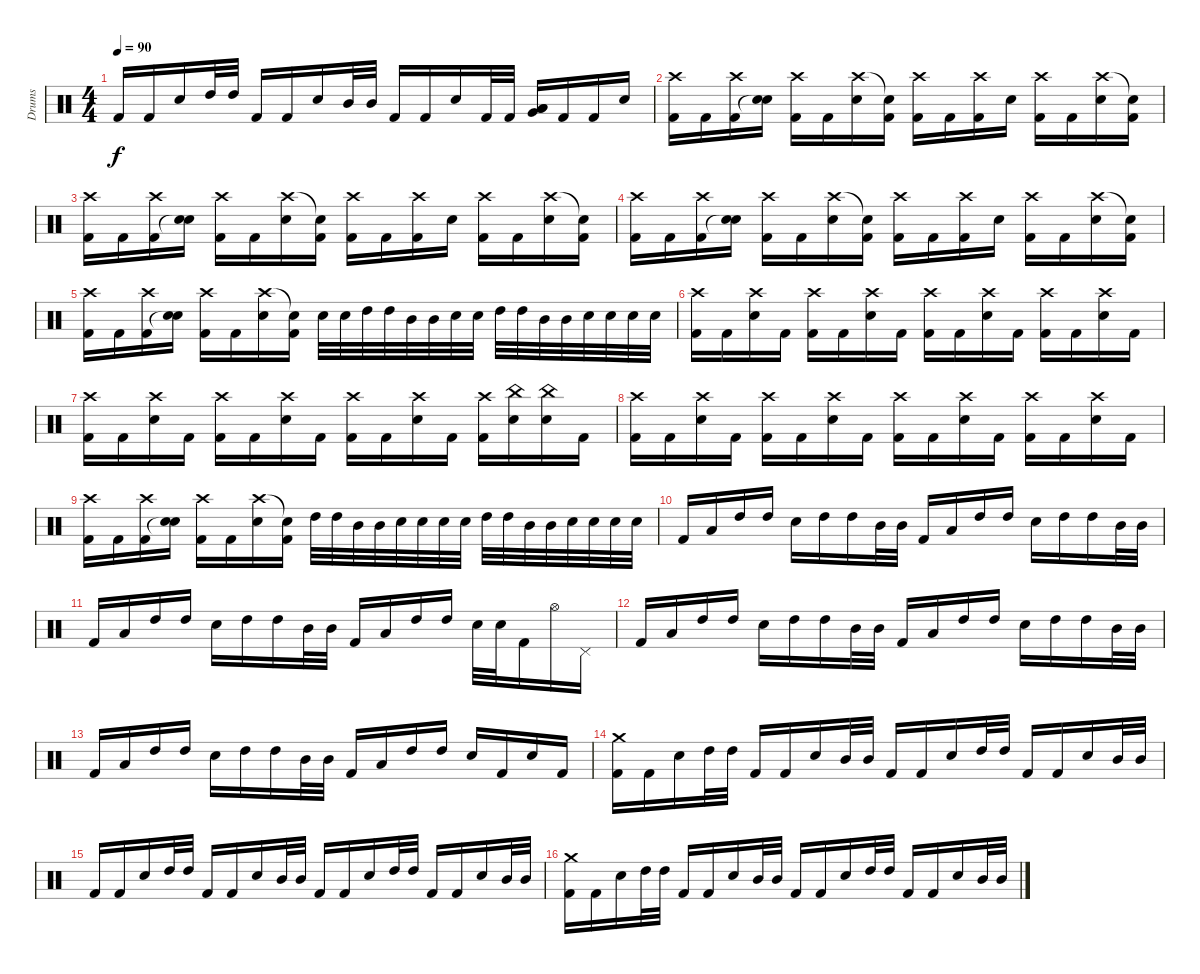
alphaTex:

\track ("Drums" "Drums") {instrument percussion}
\staff {score}
\articulation defaults
\ts (4 4)
\tempo 90
\clef neutral
\ks c "Kick (hit) 2".16{dy f} "Kick (hit) 2".16 "Electric Snare (hit)".16 "High Tom (hit)".32 "High Tom (hit)".32 "Kick (hit) 2".16 "Kick (hit) 2".16 "Electric Snare (hit)".16 "Mid Tom (hit)".32 "Mid Tom (hit)".32 "Kick (hit) 2".16 "Kick (hit) 2".16 "Electric Snare (hit)".16 "Kick (hit) 2".32 "Kick (hit) 2".32
("Very Low Tom (hit)" "Low Floor Tom (hit)" "Low Tom (hit)").16 "Kick (hit) 2".16 "Kick (hit) 2".16 "Electric Snare (hit)".16 |
("Crash high (hit)" "Kick (hit) 2").16 "Kick (hit) 2".16 ("Crash high (hit)" "Kick (hit) 2").16 ("Electric Snare (hit)" "Snare (hit)"{t}).16 ("Crash high (hit)" "Kick (hit) 2").16 "Kick (hit) 2".16 ("Crash high (hit)" "Electric Snare (hit)").16 ("Snare (hit)"{t} "Kick (hit) 2").16 ("Crash high (hit)" "Kick (hit) 2").16 "Kick (hit) 2".16 ("Crash high (hit)" "Kick (hit) 2").16 "Electric Snare (hit)".16 ("Crash high (hit)" "Kick (hit) 2").16 "Kick (hit) 2".16 ("Crash high (hit)" "Electric Snare (hit)").16 ("Snare (hit)"{t} "Kick (hit) 2").16 |
("Crash high (hit)" "Kick (hit) 2").16 "Kick (hit) 2".16 ("Crash high (hit)" "Kick (hit) 2").16 ("Electric Snare (hit)" "Snare (hit)"{t}).16 ("Crash high (hit)" "Kick (hit) 2").16 "Kick (hit) 2".16 ("Crash high (hit)" "Electric Snare (hit)").16 ("Snare (hit)"{t} "Kick (hit) 2").16 ("Crash high (hit)" "Kick (hit) 2").16 "Kick (hit) 2".16 ("Crash high (hit)" "Kick (hit) 2").16 "Electric Snare (hit)".16 ("Crash high (hit)" "Kick (hit) 2").16 "Kick (hit) 2".16 ("Crash high (hit)" "Electric Snare (hit)").16 ("Snare (hit)"{t} "Kick (hit) 2").16 |
("Crash high (hit)" "Kick (hit) 2").16 "Kick (hit) 2".16 ("Crash high (hit)" "Kick (hit) 2").16 ("Electric Snare (hit)" "Snare (hit)"{t}).16 ("Crash high (hit)" "Kick (hit) 2").16 "Kick (hit) 2".16 ("Crash high (hit)" "Electric Snare (hit)").16 ("Snare (hit)"{t} "Kick (hit) 2").16 ("Crash high (hit)" "Kick (hit) 2").16 "Kick (hit) 2".16 ("Crash high (hit)" "Kick (hit) 2").16 "Electric Snare (hit)".16 ("Crash high (hit)" "Kick (hit) 2").16 "Kick (hit) 2".16 ("Crash high (hit)" "Electric Snare (hit)").16 ("Snare (hit)"{t} "Kick (hit) 2").16 |
("Crash high (hit)" "Kick (hit) 2").16 "Kick (hit) 2".16 ("Crash high (hit)" "Kick (hit) 2").16 ("Electric Snare (hit)" "Snare (hit)"{t}).16 ("Crash high (hit)" "Kick (hit) 2").16 "Kick (hit) 2".16 ("Crash high (hit)" "Electric Snare (hit)").16 ("Snare (hit)"{t} "Kick (hit) 2").16 "Electric Snare (hit)".32 "Electric Snare (hit)".32 "High Tom (hit)".32 "High Tom (hit)".32 "Mid Tom (hit)".32 "Mid Tom (hit)".32 "Electric Snare (hit)".32 "Electric Snare (hit)".32 "High Tom (hit)".32 "High Tom (hit)".32 "Mid Tom (hit)".32 "Mid Tom (hit)".32 "Electric Snare (hit)".32 "Electric Snare (hit)".32 "Electric Snare (hit)".32 "Electric Snare (hit)".32 |
("Crash high (hit)" "Kick (hit) 2").16 "Kick (hit) 2".16 ("Crash high (hit)" "Electric Snare (hit)").16 "Kick (hit) 2".16 ("Crash high (hit)" "Kick (hit) 2").16 "Kick (hit) 2".16 ("Crash high (hit)" "Electric Snare (hit)").16 "Kick (hit) 2".16 ("Crash high (hit)" "Kick (hit) 2").16 "Kick (hit) 2".16 ("Crash high (hit)" "Electric Snare (hit)").16 "Kick (hit) 2".16 ("Crash high (hit)" "Kick (hit) 2").16 "Kick (hit) 2".16 ("Crash high (hit)" "Electric Snare (hit)").16 "Kick (hit) 2".16 |
("Crash high (hit)" "Kick (hit) 2").16 "Kick (hit) 2".16 ("Crash high (hit)" "Electric Snare (hit)").16 "Kick (hit) 2".16 ("Crash high (hit)" "Kick (hit) 2").16 "Kick (hit) 2".16 ("Crash high (hit)" "Electric Snare (hit)").16 "Kick (hit) 2".16 ("Crash high (hit)" "Kick (hit) 2").16 "Kick (hit) 2".16 ("Crash high (hit)" "Electric Snare (hit)").16 "Kick (hit) 2".16 ("Crash high (hit)" "Kick (hit) 2").16 ("China (hit)" "Electric Snare (hit)").16 ("China (hit)" "Electric Snare (hit)").16 "Kick (hit) 2".16 |
("Crash high (hit)" "Kick (hit) 2").16 "Kick (hit) 2".16 ("Crash high (hit)" "Electric Snare (hit)").16 "Kick (hit) 2".16 ("Crash high (hit)" "Kick (hit) 2").16 "Kick (hit) 2".16 ("Crash high (hit)" "Electric Snare (hit)").16 "Kick (hit) 2".16 ("Crash high (hit)" "Kick (hit) 2").16 "Kick (hit) 2".16 ("Crash high (hit)" "Electric Snare (hit)").16 "Kick (hit) 2".16 ("Crash high (hit)" "Kick (hit) 2").16 "Kick (hit) 2".16 ("Crash high (hit)" "Electric Snare (hit)").16 "Kick (hit) 2".16 |
("Crash high (hit)" "Kick (hit) 2").16 "Kick (hit) 2".16 ("Crash high (hit)" "Kick (hit) 2").16 ("Electric Snare (hit)" "Snare (hit)"{t}).16 ("Crash high (hit)" "Kick (hit) 2").16 "Kick (hit) 2".16 ("Crash high (hit)" "Electric Snare (hit)").16 ("Snare (hit)"{t} "Kick (hit) 2").16 "High Tom (hit)".32 "High Tom (hit)".32 "Mid Tom (hit)".32 "Mid Tom (hit)".32 "Electric Snare (hit)".32 "Electric Snare (hit)".32 "Electric Snare (hit)".32 "Electric Snare (hit)".32 "High Tom (hit)".32 "High Tom (hit)".32 "Mid Tom (hit)".32 "Mid Tom (hit)".32 "Electric Snare (hit)".32 "Electric Snare (hit)".32 "Electric Snare (hit)".32 "Electric Snare (hit)".32 |
"Kick (hit) 2".16 "Low Tom (hit)".16 "High Tom (hit)".16 "High Tom (hit)".16 "Electric Snare (hit)".16 "High Tom (hit)".16 "High Tom (hit)".16 "Mid Tom (hit)".32 "Mid Tom (hit)".32 "Kick (hit) 2".16 "Low Tom (hit)".16 "High Tom (hit)".16 "High Tom (hit)".16 "Electric Snare (hit)".16 "High Tom (hit)".16 "High Tom (hit)".16 "Mid Tom (hit)".32 "Mid Tom (hit)".32 |
"Kick (hit) 2".16 "Low Tom (hit)".16 "High Tom (hit)".16 "High Tom (hit)".16 "Electric Snare (hit)".16 "High Tom (hit)".16 "High Tom (hit)".16 "Mid Tom (hit)".32 "Mid Tom (hit)".32 "Kick (hit) 2".16 "Low Tom (hit)".16 "High Tom (hit)".16 "High Tom (hit)".16 "Electric Snare (hit)".32 "Electric Snare (hit)".32 "Kick (hit) 2".16 "Hi-Hat (open)".16 "Pedal Hi-Hat (hit)".16 |
"Kick (hit) 2".16 "Low Tom (hit)".16 "High Tom (hit)".16 "High Tom (hit)".16 "Electric Snare (hit)".16 "High Tom (hit)".16 "High Tom (hit)".16 "Mid Tom (hit)".32 "Mid Tom (hit)".32 "Kick (hit) 2".16 "Low Tom (hit)".16 "High Tom (hit)".16 "High Tom (hit)".16 "Electric Snare (hit)".16 "High Tom (hit)".16 "High Tom (hit)".16 "Mid Tom (hit)".32 "Mid Tom (hit)".32 |
"Kick (hit) 2".16 "Low Tom (hit)".16 "High Tom (hit)".16 "High Tom (hit)".16 "Electric Snare (hit)".16 "High Tom (hit)".16 "High Tom (hit)".16 "Mid Tom (hit)".32 "Mid Tom (hit)".32 "Kick (hit) 2".16 "Low Tom (hit)".16 "High Tom (hit)".16 "High Tom (hit)".16 "Electric Snare (hit)".16 "Kick (hit) 2".16 "Electric Snare (hit)".16 "Kick (hit) 2".16 |
("Crash medium (hit)" "Kick (hit) 2").16 "Kick (hit) 2".16 "Electric Snare (hit)".16 "High Tom (hit)".32 "High Tom (hit)".32 "Kick (hit) 2".16 "Kick (hit) 2".16 "Electric Snare (hit)".16 "Mid Tom (hit)".32 "Mid Tom (hit)".32 "Kick (hit) 2".16 "Kick (hit) 2".16 "Electric Snare (hit)".16 "High Tom (hit)".32 "High Tom (hit)".32 "Kick (hit) 2".16 "Kick (hit) 2".16 "Electric Snare (hit)".16 "Mid Tom (hit)".32 "Mid Tom (hit)".32 |
"Kick (hit) 2".16 "Kick (hit) 2".16 "Electric Snare (hit)".16 "High Tom (hit)".32 "High Tom (hit)".32 "Kick (hit) 2".16 "Kick (hit) 2".16 "Electric Snare (hit)".16 "Mid Tom (hit)".32 "Mid Tom (hit)".32 "Kick (hit) 2".16 "Kick (hit) 2".16 "Electric Snare (hit)".16 "High Tom (hit)".32 "High Tom (hit)".32 "Kick (hit) 2".16 "Kick (hit) 2".16 "Electric Snare (hit)".16 "Mid Tom (hit)".32 "Mid Tom (hit)".32 |
("Crash medium (hit)" "Kick (hit) 2").16 "Kick (hit) 2".16 "Electric Snare (hit)".16 "High Tom (hit)".32 "High Tom (hit)".32 "Kick (hit) 2".16 "Kick (hit) 2".16 "Electric Snare (hit)".16 "Mid Tom (hit)".32 "Mid Tom (hit)".32 "Kick (hit) 2".16 "Kick (hit) 2".16 "Electric Snare (hit)".16 "High Tom (hit)".32 "High Tom (hit)".32 "Kick (hit) 2".16 "Kick (hit) 2".16 "Electric Snare (hit)".16 "Mid Tom (hit)".32 "Mid Tom (hit)".32
